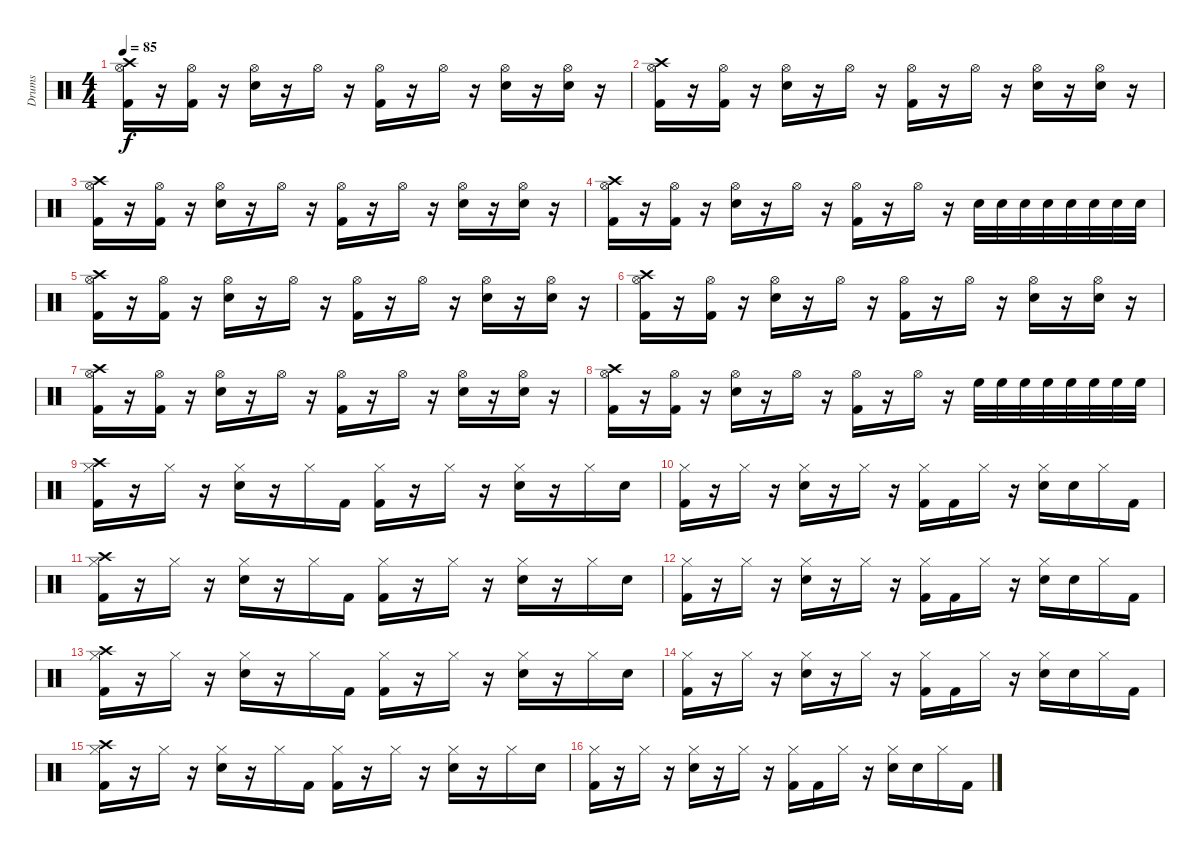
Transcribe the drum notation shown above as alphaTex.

\track ("Drums" "Drums") {instrument percussion}
\staff {score}
\articulation defaults
\ts (4 4)
\tempo 85
\clef neutral
\ks c
("Hi-Hat (open)" "Kick (hit) 2" "Crash high (hit)").16{dy f} r.16 ("Hi-Hat (open)" "Kick (hit) 2").16 r.16 ("Hi-Hat (open)" "Electric Snare (hit)").16 r.16 "Hi-Hat (open)".16 r.16 ("Hi-Hat (open)" "Kick (hit) 2").16 r.16 "Hi-Hat (open)".16 r.16 ("Hi-Hat (open)" "Electric Snare (hit)").16 r.16 ("Hi-Hat (open)" "Electric Snare (hit)").16 r.16 |
("Hi-Hat (open)" "Kick (hit) 2" "Crash high (hit)").16 r.16 ("Hi-Hat (open)" "Kick (hit) 2").16 r.16 ("Hi-Hat (open)" "Electric Snare (hit)").16 r.16 "Hi-Hat (open)".16 r.16 ("Hi-Hat (open)" "Kick (hit) 2").16 r.16 "Hi-Hat (open)".16 r.16 ("Hi-Hat (open)" "Electric Snare (hit)").16 r.16 ("Hi-Hat (open)" "Electric Snare (hit)").16 r.16 |
("Hi-Hat (open)" "Kick (hit) 2" "Crash high (hit)").16 r.16 ("Hi-Hat (open)" "Kick (hit) 2").16 r.16 ("Hi-Hat (open)" "Electric Snare (hit)").16 r.16 "Hi-Hat (open)".16 r.16 ("Hi-Hat (open)" "Kick (hit) 2").16 r.16 "Hi-Hat (open)".16 r.16 ("Hi-Hat (open)" "Electric Snare (hit)").16 r.16 ("Hi-Hat (open)" "Electric Snare (hit)").16 r.16 |
("Hi-Hat (open)" "Kick (hit) 2" "Crash high (hit)").16 r.16 ("Hi-Hat (open)" "Kick (hit) 2").16 r.16 ("Hi-Hat (open)" "Electric Snare (hit)").16 r.16 "Hi-Hat (open)".16 r.16 ("Hi-Hat (open)" "Kick (hit) 2").16 r.16 "Hi-Hat (open)".16 r.16 "Electric Snare (hit)".32 "Electric Snare (hit)".32 "Electric Snare (hit)".32 "Electric Snare (hit)".32 "Electric Snare (hit)".32 "Electric Snare (hit)".32 "Electric Snare (hit)".32 "Electric Snare (hit)".32 |
("Hi-Hat (open)" "Kick (hit) 2" "Crash high (hit)").16 r.16 ("Hi-Hat (open)" "Kick (hit) 2").16 r.16 ("Hi-Hat (open)" "Electric Snare (hit)").16 r.16 "Hi-Hat (open)".16 r.16 ("Hi-Hat (open)" "Kick (hit) 2").16 r.16 "Hi-Hat (open)".16 r.16 ("Hi-Hat (open)" "Electric Snare (hit)").16 r.16 ("Hi-Hat (open)" "Electric Snare (hit)").16 r.16 |
("Hi-Hat (open)" "Kick (hit) 2" "Crash high (hit)").16 r.16 ("Hi-Hat (open)" "Kick (hit) 2").16 r.16 ("Hi-Hat (open)" "Electric Snare (hit)").16 r.16 "Hi-Hat (open)".16 r.16 ("Hi-Hat (open)" "Kick (hit) 2").16 r.16 "Hi-Hat (open)".16 r.16 ("Hi-Hat (open)" "Electric Snare (hit)").16 r.16 ("Hi-Hat (open)" "Electric Snare (hit)").16 r.16 |
("Hi-Hat (open)" "Kick (hit) 2" "Crash high (hit)").16 r.16 ("Hi-Hat (open)" "Kick (hit) 2").16 r.16 ("Hi-Hat (open)" "Electric Snare (hit)").16 r.16 "Hi-Hat (open)".16 r.16 ("Hi-Hat (open)" "Kick (hit) 2").16 r.16 "Hi-Hat (open)".16 r.16 ("Hi-Hat (open)" "Electric Snare (hit)").16 r.16 ("Hi-Hat (open)" "Electric Snare (hit)").16 r.16 |
("Hi-Hat (open)" "Kick (hit) 2" "Crash high (hit)").16 r.16 ("Hi-Hat (open)" "Kick (hit) 2").16 r.16 ("Hi-Hat (open)" "Electric Snare (hit)").16 r.16 "Hi-Hat (open)".16 r.16 ("Hi-Hat (open)" "Kick (hit) 2").16 r.16 "Hi-Hat (open)".16 r.16 "High Floor Tom (hit)".32 "High Floor Tom (hit)".32 "High Floor Tom (hit)".32 "High Floor Tom (hit)".32 "High Floor Tom (hit)".32 "High Floor Tom (hit)".32 "High Floor Tom (hit)".32 "High Floor Tom (hit)".32 |
("Hi-Hat (closed)" "Kick (hit) 2" "Crash high (hit)").16 r.16 "Hi-Hat (closed)".16 r.16 ("Hi-Hat (closed)" "Electric Snare (hit)").16 r.16 "Hi-Hat (closed)".16 "Kick (hit) 2".16 ("Hi-Hat (closed)" "Kick (hit) 2").16 r.16 "Hi-Hat (closed)".16 r.16 ("Hi-Hat (closed)" "Electric Snare (hit)").16 r.16 "Hi-Hat (closed)".16 "Electric Snare (hit)".16 |
("Hi-Hat (closed)" "Kick (hit) 2").16 r.16 "Hi-Hat (closed)".16 r.16 ("Hi-Hat (closed)" "Electric Snare (hit)").16 r.16 "Hi-Hat (closed)".16 r.16 ("Hi-Hat (closed)" "Kick (hit) 2").16 "Kick (hit) 2".16 "Hi-Hat (closed)".16 r.16 ("Hi-Hat (closed)" "Electric Snare (hit)").16 "Electric Snare (hit)".16 "Hi-Hat (closed)".16 "Kick (hit) 2".16 |
("Hi-Hat (closed)" "Kick (hit) 2" "Crash high (hit)").16 r.16 "Hi-Hat (closed)".16 r.16 ("Hi-Hat (closed)" "Electric Snare (hit)").16 r.16 "Hi-Hat (closed)".16 "Kick (hit) 2".16 ("Hi-Hat (closed)" "Kick (hit) 2").16 r.16 "Hi-Hat (closed)".16 r.16 ("Hi-Hat (closed)" "Electric Snare (hit)").16 r.16 "Hi-Hat (closed)".16 "Electric Snare (hit)".16 |
("Hi-Hat (closed)" "Kick (hit) 2").16 r.16 "Hi-Hat (closed)".16 r.16 ("Hi-Hat (closed)" "Electric Snare (hit)").16 r.16 "Hi-Hat (closed)".16 r.16 ("Hi-Hat (closed)" "Kick (hit) 2").16 "Kick (hit) 2".16 "Hi-Hat (closed)".16 r.16 ("Hi-Hat (closed)" "Electric Snare (hit)").16 "Electric Snare (hit)".16 "Hi-Hat (closed)".16 "Kick (hit) 2".16 |
("Hi-Hat (closed)" "Kick (hit) 2" "Crash high (hit)").16 r.16 "Hi-Hat (closed)".16 r.16 ("Hi-Hat (closed)" "Electric Snare (hit)").16 r.16 "Hi-Hat (closed)".16 "Kick (hit) 2".16 ("Hi-Hat (closed)" "Kick (hit) 2").16 r.16 "Hi-Hat (closed)".16 r.16 ("Hi-Hat (closed)" "Electric Snare (hit)").16 r.16 "Hi-Hat (closed)".16 "Electric Snare (hit)".16 |
("Hi-Hat (closed)" "Kick (hit) 2").16 r.16 "Hi-Hat (closed)".16 r.16 ("Hi-Hat (closed)" "Electric Snare (hit)").16 r.16 "Hi-Hat (closed)".16 r.16 ("Hi-Hat (closed)" "Kick (hit) 2").16 "Kick (hit) 2".16 "Hi-Hat (closed)".16 r.16 ("Hi-Hat (closed)" "Electric Snare (hit)").16 "Electric Snare (hit)".16 "Hi-Hat (closed)".16 "Kick (hit) 2".16 |
("Hi-Hat (closed)" "Kick (hit) 2" "Crash high (hit)").16 r.16 "Hi-Hat (closed)".16 r.16 ("Hi-Hat (closed)" "Electric Snare (hit)").16 r.16 "Hi-Hat (closed)".16 "Kick (hit) 2".16 ("Hi-Hat (closed)" "Kick (hit) 2").16 r.16 "Hi-Hat (closed)".16 r.16 ("Hi-Hat (closed)" "Electric Snare (hit)").16 r.16 "Hi-Hat (closed)".16 "Electric Snare (hit)".16 |
("Hi-Hat (closed)" "Kick (hit) 2").16 r.16 "Hi-Hat (closed)".16 r.16 ("Hi-Hat (closed)" "Electric Snare (hit)").16 r.16 "Hi-Hat (closed)".16 r.16 ("Hi-Hat (closed)" "Kick (hit) 2").16 "Kick (hit) 2".16 "Hi-Hat (closed)".16 r.16 ("Hi-Hat (closed)" "Electric Snare (hit)").16 "Electric Snare (hit)".16 "Hi-Hat (closed)".16 "Kick (hit) 2".16
